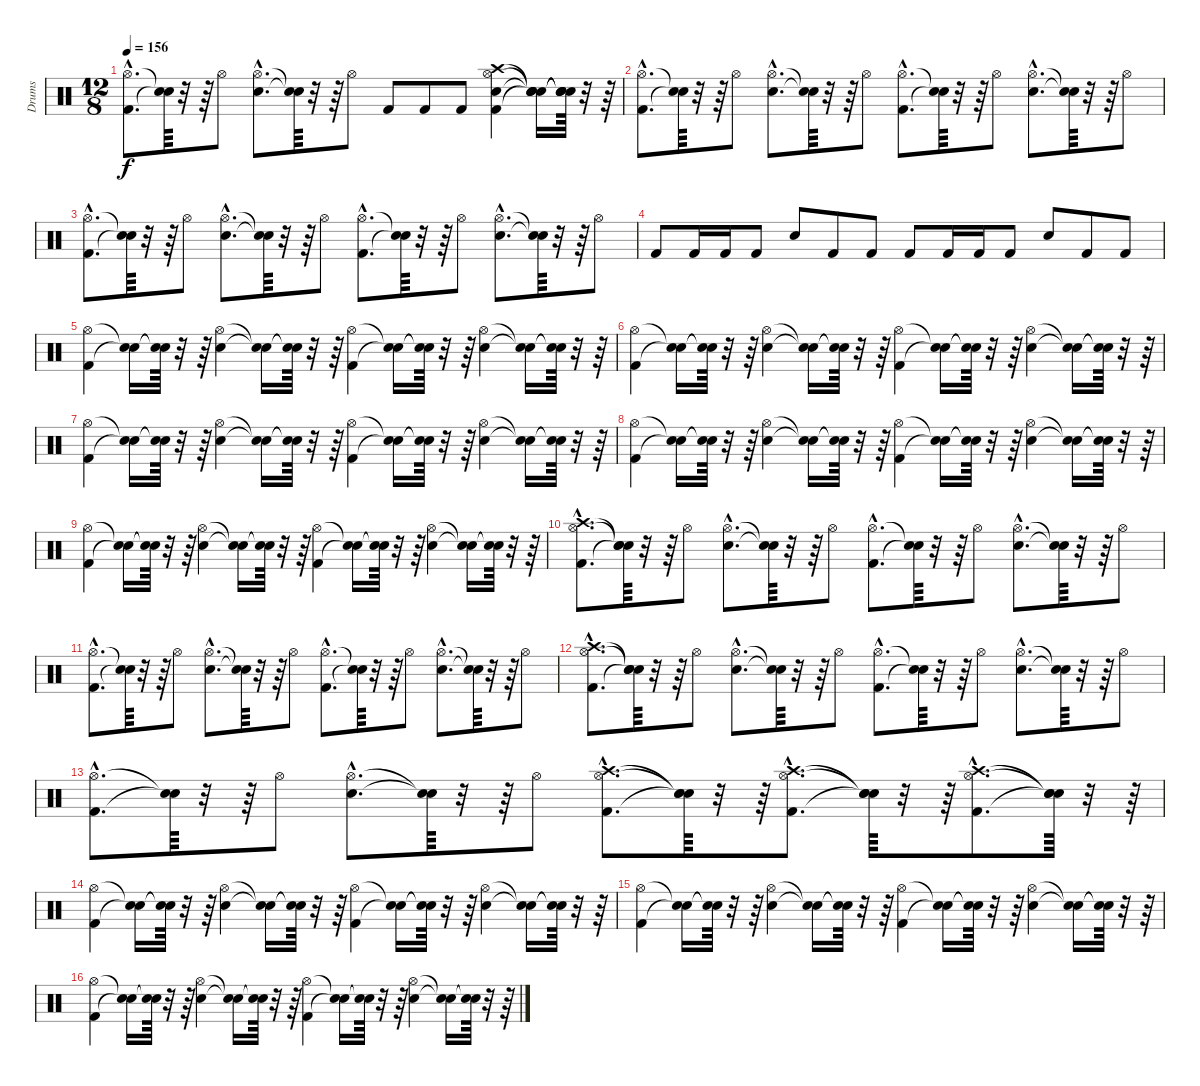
\track ("Drums" "Drums") {instrument percussion}
\staff {score}
\articulation defaults
\ts (12 8)
\tempo 156
\clef neutral
\ks c
("Kick (hit) 2"{hac} "Hi-Hat (open)"{hac}).8{d dy f} ("Snare (hit)"{t} "Snare (hit)"{t}).64 r.32 r.64 "Hi-Hat (open)".8 ("Snare (hit) 2"{hac} "Hi-Hat (open)"{hac}).8{d} ("Snare (hit)"{t} "Snare (hit)"{t}).64 r.32 r.64 "Hi-Hat (open)".8 "Kick (hit) 2".8 "Kick (hit) 2".8 "Kick (hit) 2".8 ("Kick (hit) 2" "Snare (hit) 2" "Hi-Hat (open)" "Crash high (hit)").4 ("Snare (hit)"{t} "Snare (hit)"{t} "Snare (hit)"{t} "Snare (hit)"{t}).16 ("Snare (hit)"{t} "Snare (hit)"{t} "Snare (hit)"{t} "Snare (hit)"{t}).64 r.32 r.64 |
("Kick (hit) 2"{hac} "Hi-Hat (open)"{hac}).8{d} ("Snare (hit)"{t} "Snare (hit)"{t}).64 r.32 r.64 "Hi-Hat (open)".8 ("Snare (hit) 2"{hac} "Hi-Hat (open)"{hac}).8{d} ("Snare (hit)"{t} "Snare (hit)"{t}).64 r.32 r.64 "Hi-Hat (open)".8 ("Kick (hit) 2"{hac} "Hi-Hat (open)"{hac}).8{d} ("Snare (hit)"{t} "Snare (hit)"{t}).64 r.32 r.64 "Hi-Hat (open)".8 ("Snare (hit) 2"{hac} "Hi-Hat (open)"{hac}).8{d} ("Snare (hit)"{t} "Snare (hit)"{t}).64 r.32 r.64 "Hi-Hat (open)".8 |
("Kick (hit) 2"{hac} "Hi-Hat (open)"{hac}).8{d} ("Snare (hit)"{t} "Snare (hit)"{t}).64 r.32 r.64 "Hi-Hat (open)".8 ("Snare (hit) 2"{hac} "Hi-Hat (open)"{hac}).8{d} ("Snare (hit)"{t} "Snare (hit)"{t}).64 r.32 r.64 "Hi-Hat (open)".8 ("Kick (hit) 2"{hac} "Hi-Hat (open)"{hac}).8{d} ("Snare (hit)"{t} "Snare (hit)"{t}).64 r.32 r.64 "Hi-Hat (open)".8 ("Snare (hit) 2"{hac} "Hi-Hat (open)"{hac}).8{d} ("Snare (hit)"{t} "Snare (hit)"{t}).64 r.32 r.64 "Hi-Hat (open)".8 |
"Kick (hit) 2".8 "Kick (hit) 2".16 "Kick (hit) 2".16 "Kick (hit) 2".8 "Snare (hit) 2".8 "Kick (hit) 2".8 "Kick (hit) 2".8 "Kick (hit) 2".8 "Kick (hit) 2".16 "Kick (hit) 2".16 "Kick (hit) 2".8 "Snare (hit) 2".8 "Kick (hit) 2".8 "Kick (hit) 2".8 |
("Kick (hit) 2" "Hi-Hat (open)").4 ("Snare (hit)"{t} "Snare (hit)"{t}).16 ("Snare (hit)"{t} "Snare (hit)"{t}).64 r.32 r.64 ("Snare (hit) 2" "Hi-Hat (open)").4 ("Snare (hit)"{t} "Snare (hit)"{t}).16 ("Snare (hit)"{t} "Snare (hit)"{t}).64 r.32 r.64 ("Kick (hit) 2" "Hi-Hat (open)").4 ("Snare (hit)"{t} "Snare (hit)"{t}).16 ("Snare (hit)"{t} "Snare (hit)"{t}).64 r.32 r.64 ("Snare (hit) 2" "Hi-Hat (open)").4 ("Snare (hit)"{t} "Snare (hit)"{t}).16 ("Snare (hit)"{t} "Snare (hit)"{t}).64 r.32 r.64 |
("Kick (hit) 2" "Hi-Hat (open)").4 ("Snare (hit)"{t} "Snare (hit)"{t}).16 ("Snare (hit)"{t} "Snare (hit)"{t}).64 r.32 r.64 ("Snare (hit) 2" "Hi-Hat (open)").4 ("Snare (hit)"{t} "Snare (hit)"{t}).16 ("Snare (hit)"{t} "Snare (hit)"{t}).64 r.32 r.64 ("Kick (hit) 2" "Hi-Hat (open)").4 ("Snare (hit)"{t} "Snare (hit)"{t}).16 ("Snare (hit)"{t} "Snare (hit)"{t}).64 r.32 r.64 ("Snare (hit) 2" "Hi-Hat (open)").4 ("Snare (hit)"{t} "Snare (hit)"{t}).16 ("Snare (hit)"{t} "Snare (hit)"{t}).64 r.32 r.64 |
("Kick (hit) 2" "Hi-Hat (open)").4 ("Snare (hit)"{t} "Snare (hit)"{t}).16 ("Snare (hit)"{t} "Snare (hit)"{t}).64 r.32 r.64 ("Snare (hit) 2" "Hi-Hat (open)").4 ("Snare (hit)"{t} "Snare (hit)"{t}).16 ("Snare (hit)"{t} "Snare (hit)"{t}).64 r.32 r.64 ("Kick (hit) 2" "Hi-Hat (open)").4 ("Snare (hit)"{t} "Snare (hit)"{t}).16 ("Snare (hit)"{t} "Snare (hit)"{t}).64 r.32 r.64 ("Snare (hit) 2" "Hi-Hat (open)").4 ("Snare (hit)"{t} "Snare (hit)"{t}).16 ("Snare (hit)"{t} "Snare (hit)"{t}).64 r.32 r.64 |
("Kick (hit) 2" "Hi-Hat (open)").4 ("Snare (hit)"{t} "Snare (hit)"{t}).16 ("Snare (hit)"{t} "Snare (hit)"{t}).64 r.32 r.64 ("Snare (hit) 2" "Hi-Hat (open)").4 ("Snare (hit)"{t} "Snare (hit)"{t}).16 ("Snare (hit)"{t} "Snare (hit)"{t}).64 r.32 r.64 ("Kick (hit) 2" "Hi-Hat (open)").4 ("Snare (hit)"{t} "Snare (hit)"{t}).16 ("Snare (hit)"{t} "Snare (hit)"{t}).64 r.32 r.64 ("Snare (hit) 2" "Hi-Hat (open)").4 ("Snare (hit)"{t} "Snare (hit)"{t}).16 ("Snare (hit)"{t} "Snare (hit)"{t}).64 r.32 r.64 |
("Kick (hit) 2" "Hi-Hat (open)").4 ("Snare (hit)"{t} "Snare (hit)"{t}).16 ("Snare (hit)"{t} "Snare (hit)"{t}).64 r.32 r.64 ("Snare (hit) 2" "Hi-Hat (open)").4 ("Snare (hit)"{t} "Snare (hit)"{t}).16 ("Snare (hit)"{t} "Snare (hit)"{t}).64 r.32 r.64 ("Kick (hit) 2" "Hi-Hat (open)").4 ("Snare (hit)"{t} "Snare (hit)"{t}).16 ("Snare (hit)"{t} "Snare (hit)"{t}).64 r.32 r.64 ("Snare (hit) 2" "Hi-Hat (open)").4 ("Snare (hit)"{t} "Snare (hit)"{t}).16 ("Snare (hit)"{t} "Snare (hit)"{t}).64 r.32 r.64 |
("Kick (hit) 2"{hac} "Hi-Hat (open)"{hac} "Crash high (hit)"{hac}).8{d} ("Snare (hit)"{t} "Snare (hit)"{t} "Snare (hit)"{t}).64 r.32 r.64 "Hi-Hat (open)".8 ("Snare (hit) 2"{hac} "Hi-Hat (open)"{hac}).8{d} ("Snare (hit)"{t} "Snare (hit)"{t}).64 r.32 r.64 "Hi-Hat (open)".8 ("Kick (hit) 2"{hac} "Hi-Hat (open)"{hac}).8{d} ("Snare (hit)"{t} "Snare (hit)"{t}).64 r.32 r.64 "Hi-Hat (open)".8 ("Snare (hit) 2"{hac} "Hi-Hat (open)"{hac}).8{d} ("Snare (hit)"{t} "Snare (hit)"{t}).64 r.32 r.64 "Hi-Hat (open)".8 |
("Kick (hit) 2"{hac} "Hi-Hat (open)"{hac}).8{d} ("Snare (hit)"{t} "Snare (hit)"{t}).64 r.32 r.64 "Hi-Hat (open)".8 ("Snare (hit) 2"{hac} "Hi-Hat (open)"{hac}).8{d} ("Snare (hit)"{t} "Snare (hit)"{t}).64 r.32 r.64 "Hi-Hat (open)".8 ("Kick (hit) 2"{hac} "Hi-Hat (open)"{hac}).8{d} ("Snare (hit)"{t} "Snare (hit)"{t}).64 r.32 r.64 "Hi-Hat (open)".8 ("Snare (hit) 2"{hac} "Hi-Hat (open)"{hac}).8{d} ("Snare (hit)"{t} "Snare (hit)"{t}).64 r.32 r.64 "Hi-Hat (open)".8 |
("Kick (hit) 2"{hac} "Hi-Hat (open)"{hac} "Crash high (hit)"{hac}).8{d} ("Snare (hit)"{t} "Snare (hit)"{t} "Snare (hit)"{t}).64 r.32 r.64 "Hi-Hat (open)".8 ("Snare (hit) 2"{hac} "Hi-Hat (open)"{hac}).8{d} ("Snare (hit)"{t} "Snare (hit)"{t}).64 r.32 r.64 "Hi-Hat (open)".8 ("Kick (hit) 2"{hac} "Hi-Hat (open)"{hac}).8{d} ("Snare (hit)"{t} "Snare (hit)"{t}).64 r.32 r.64 "Hi-Hat (open)".8 ("Snare (hit) 2"{hac} "Hi-Hat (open)"{hac}).8{d} ("Snare (hit)"{t} "Snare (hit)"{t}).64 r.32 r.64 "Hi-Hat (open)".8 |
("Kick (hit) 2"{hac} "Hi-Hat (open)"{hac}).8{d} ("Snare (hit)"{t} "Snare (hit)"{t}).64 r.32 r.64 "Hi-Hat (open)".8 ("Snare (hit) 2"{hac} "Hi-Hat (open)"{hac}).8{d} ("Snare (hit)"{t} "Snare (hit)"{t}).64 r.32 r.64 "Hi-Hat (open)".8 ("Kick (hit) 2"{hac} "Hi-Hat (open)"{hac} "Crash high (hit)"{hac}).8{d} ("Snare (hit)"{t} "Snare (hit)"{t} "Snare (hit)"{t}).64 r.32 r.64 ("Kick (hit) 2"{hac} "Hi-Hat (open)"{hac} "Crash high (hit)"{hac}).8{d} ("Snare (hit)"{t} "Snare (hit)"{t} "Snare (hit)"{t}).64 r.32 r.64 ("Kick (hit) 2"{hac} "Hi-Hat (open)"{hac} "Crash high (hit)"{hac}).8{d} ("Snare (hit)"{t} "Snare (hit)"{t} "Snare (hit)"{t}).64 r.32 r.64 |
("Kick (hit) 2" "Hi-Hat (open)").4 ("Snare (hit)"{t} "Snare (hit)"{t}).16 ("Snare (hit)"{t} "Snare (hit)"{t}).64 r.32 r.64 ("Snare (hit) 2" "Hi-Hat (open)").4 ("Snare (hit)"{t} "Snare (hit)"{t}).16 ("Snare (hit)"{t} "Snare (hit)"{t}).64 r.32 r.64 ("Kick (hit) 2" "Hi-Hat (open)").4 ("Snare (hit)"{t} "Snare (hit)"{t}).16 ("Snare (hit)"{t} "Snare (hit)"{t}).64 r.32 r.64 ("Snare (hit) 2" "Hi-Hat (open)").4 ("Snare (hit)"{t} "Snare (hit)"{t}).16 ("Snare (hit)"{t} "Snare (hit)"{t}).64 r.32 r.64 |
("Kick (hit) 2" "Hi-Hat (open)").4 ("Snare (hit)"{t} "Snare (hit)"{t}).16 ("Snare (hit)"{t} "Snare (hit)"{t}).64 r.32 r.64 ("Snare (hit) 2" "Hi-Hat (open)").4 ("Snare (hit)"{t} "Snare (hit)"{t}).16 ("Snare (hit)"{t} "Snare (hit)"{t}).64 r.32 r.64 ("Kick (hit) 2" "Hi-Hat (open)").4 ("Snare (hit)"{t} "Snare (hit)"{t}).16 ("Snare (hit)"{t} "Snare (hit)"{t}).64 r.32 r.64 ("Snare (hit) 2" "Hi-Hat (open)").4 ("Snare (hit)"{t} "Snare (hit)"{t}).16 ("Snare (hit)"{t} "Snare (hit)"{t}).64 r.32 r.64 |
("Kick (hit) 2" "Hi-Hat (open)").4 ("Snare (hit)"{t} "Snare (hit)"{t}).16 ("Snare (hit)"{t} "Snare (hit)"{t}).64 r.32 r.64 ("Snare (hit) 2" "Hi-Hat (open)").4 ("Snare (hit)"{t} "Snare (hit)"{t}).16 ("Snare (hit)"{t} "Snare (hit)"{t}).64 r.32 r.64 ("Kick (hit) 2" "Hi-Hat (open)").4 ("Snare (hit)"{t} "Snare (hit)"{t}).16 ("Snare (hit)"{t} "Snare (hit)"{t}).64 r.32 r.64 ("Snare (hit) 2" "Hi-Hat (open)").4 ("Snare (hit)"{t} "Snare (hit)"{t}).16 ("Snare (hit)"{t} "Snare (hit)"{t}).64 r.32 r.64
